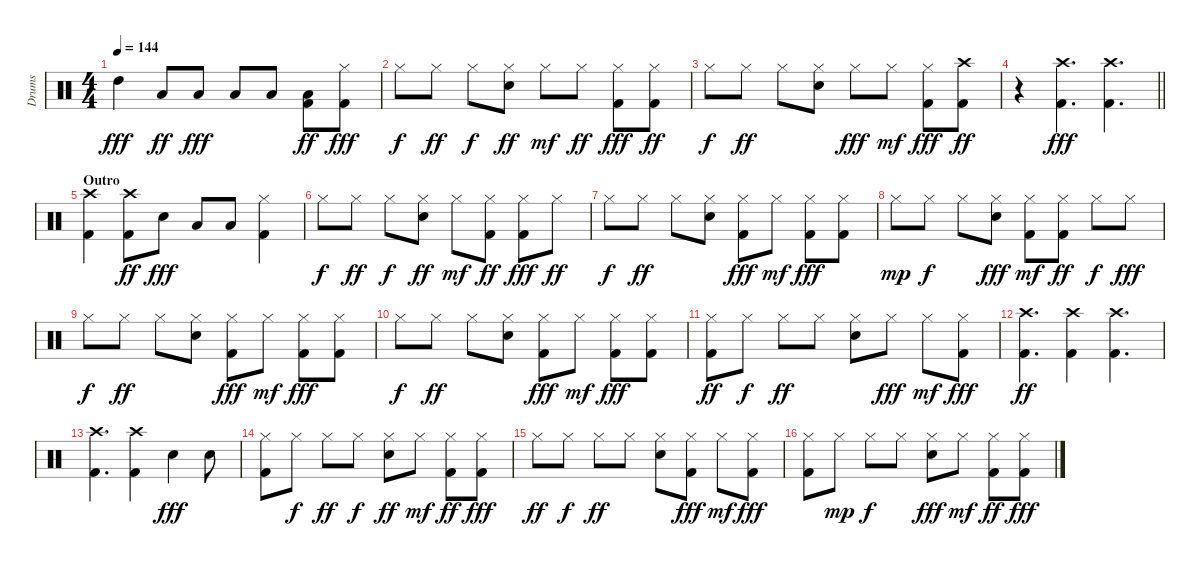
\track ("Drums" "Drums") {instrument percussion}
\staff {score}
\articulation defaults
\ts (4 4)
\tempo 144
\clef neutral
\ks c "High Tom (hit)".4{dy fff} "Low Tom (hit)".8{dy ff} "Low Tom (hit)".8{dy fff} "Low Tom (hit)".8 "Low Floor Tom (hit)".8
("Low Floor Tom (hit)" "Kick (hit) 2").8{dy ff} ("Kick (hit) 2" "Hi-Hat (closed)").8{dy fff} |
"Hi-Hat (closed)".8{dy f} "Hi-Hat (closed)".8{dy ff} "Hi-Hat (closed)".8{dy f} ("Snare (hit) 2" "Hi-Hat (closed)").8{dy ff} "Hi-Hat (closed)".8{dy mf} "Hi-Hat (closed)".8{dy ff} ("Kick (hit) 2" "Hi-Hat (closed)").8{dy fff} ("Kick (hit) 2" "Hi-Hat (closed)").8{dy ff} |
"Hi-Hat (closed)".8{dy f} "Hi-Hat (closed)".8{dy ff} "Hi-Hat (closed)".8 ("Snare (hit) 2" "Hi-Hat (closed)").8 "Hi-Hat (closed)".8{dy fff} "Hi-Hat (closed)".8{dy mf} ("Kick (hit) 2" "Hi-Hat (closed)").8{dy fff} ("Kick (hit) 2" "Crash high (hit)").8{dy ff} |
\barLineRight lightlight
r.4 ("Kick (hit) 2" "Crash high (hit)").4{d dy fff} ("Kick (hit) 2" "Crash high (hit)").4{d} |
\section ("" "Outro")
("Kick (hit) 2" "Crash high (hit)").4 ("Kick (hit) 2" "Crash high (hit)").8{dy ff} "Snare (hit) 2".8{dy fff} "Low Tom (hit)".8 "Low Tom (hit)".8 ("Kick (hit) 2" "Hi-Hat (closed)").4 |
"Hi-Hat (closed)".8{dy f} "Hi-Hat (closed)".8{dy ff} "Hi-Hat (closed)".8{dy f} ("Snare (hit) 2" "Hi-Hat (closed)").8{dy ff} "Hi-Hat (closed)".8{dy mf} ("Kick (hit) 2" "Hi-Hat (closed)").8{dy ff} ("Kick (hit) 2" "Hi-Hat (closed)").8{dy fff} "Hi-Hat (closed)".8{dy ff} |
"Hi-Hat (closed)".8{dy f} "Hi-Hat (closed)".8{dy ff} "Hi-Hat (closed)".8 ("Snare (hit) 2" "Hi-Hat (closed)").8 ("Kick (hit) 2" "Hi-Hat (closed)").8{dy fff} "Hi-Hat (closed)".8{dy mf} ("Kick (hit) 2" "Hi-Hat (closed)").8{dy fff} ("Kick (hit) 2" "Hi-Hat (closed)").8 |
"Hi-Hat (closed)".8{dy mp} "Hi-Hat (closed)".8{dy f} "Hi-Hat (closed)".8 ("Snare (hit) 2" "Hi-Hat (closed)").8{dy fff} ("Kick (hit) 2" "Hi-Hat (closed)").8{dy mf} ("Kick (hit) 2" "Hi-Hat (closed)").8{dy ff} "Hi-Hat (closed)".8{dy f} "Hi-Hat (closed)".8{dy fff} |
"Hi-Hat (closed)".8{dy f} "Hi-Hat (closed)".8{dy ff} "Hi-Hat (closed)".8 ("Snare (hit) 2" "Hi-Hat (closed)").8 ("Kick (hit) 2" "Hi-Hat (closed)").8{dy fff} "Hi-Hat (closed)".8{dy mf} ("Kick (hit) 2" "Hi-Hat (closed)").8{dy fff} ("Kick (hit) 2" "Hi-Hat (closed)").8 |
"Hi-Hat (closed)".8{dy f} "Hi-Hat (closed)".8{dy ff} "Hi-Hat (closed)".8 ("Snare (hit) 2" "Hi-Hat (closed)").8 ("Kick (hit) 2" "Hi-Hat (closed)").8{dy fff} "Hi-Hat (closed)".8{dy mf} ("Kick (hit) 2" "Hi-Hat (closed)").8{dy fff} ("Kick (hit) 2" "Hi-Hat (closed)").8 |
("Kick (hit) 2" "Hi-Hat (closed)").8{dy ff} "Hi-Hat (closed)".8{dy f} "Hi-Hat (closed)".8{dy ff} "Hi-Hat (closed)".8 ("Snare (hit) 2" "Hi-Hat (closed)").8 "Hi-Hat (closed)".8{dy fff} "Hi-Hat (closed)".8{dy mf} ("Kick (hit) 2" "Hi-Hat (closed)").8{dy fff} |
("Kick (hit) 2" "Crash high (hit)").4{d dy ff} ("Kick (hit) 2" "Crash high (hit)").4 ("Kick (hit) 2" "Crash high (hit)").4{d} |
("Kick (hit) 2" "Crash high (hit)").4{d} ("Kick (hit) 2" "Crash high (hit)").4 "Snare (hit) 2".4{dy fff} "Snare (hit) 2".8 |
("Kick (hit) 2" "Hi-Hat (closed)").8 "Hi-Hat (closed)".8{dy f} "Hi-Hat (closed)".8{dy ff} "Hi-Hat (closed)".8{dy f} ("Snare (hit) 2" "Hi-Hat (closed)").8{dy ff} "Hi-Hat (closed)".8{dy mf} ("Kick (hit) 2" "Hi-Hat (closed)").8{dy ff} ("Kick (hit) 2" "Hi-Hat (closed)").8{dy fff} |
"Hi-Hat (closed)".8{dy ff} "Hi-Hat (closed)".8{dy f} "Hi-Hat (closed)".8{dy ff} "Hi-Hat (closed)".8 ("Snare (hit) 2" "Hi-Hat (closed)").8 ("Kick (hit) 2" "Hi-Hat (closed)").8{dy fff} "Hi-Hat (closed)".8{dy mf} ("Kick (hit) 2" "Hi-Hat (closed)").8{dy fff} |
("Kick (hit) 2" "Hi-Hat (closed)").8 "Hi-Hat (closed)".8{dy mp} "Hi-Hat (closed)".8{dy f} "Hi-Hat (closed)".8 ("Snare (hit) 2" "Hi-Hat (closed)").8{dy fff} "Hi-Hat (closed)".8{dy mf} ("Kick (hit) 2" "Hi-Hat (closed)").8{dy ff} ("Kick (hit) 2" "Hi-Hat (closed)").8{dy fff}
